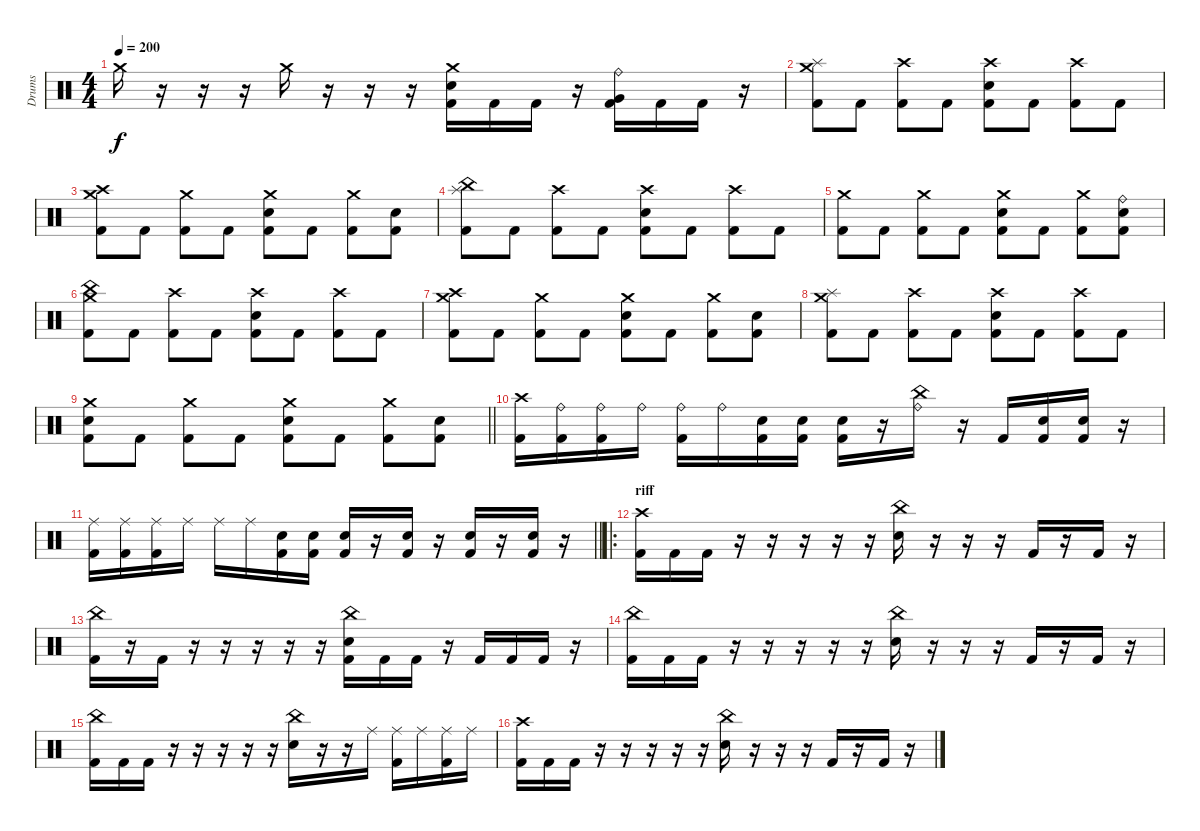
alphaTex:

\track ("Drums" "Drums") {instrument percussion}
\staff {score}
\articulation defaults
\ts (4 4)
\tempo 200
\clef neutral
\ks c "Crash medium (hit)".16{dy f}
r.16 r.16 r.16 "Crash medium (hit)".16 r.16 r.16 r.16 ("Electric Snare (hit)" "Kick (hit) 2" "Crash medium (hit)").16 "Kick (hit) 2".16 "Kick (hit) 2".16 r.16 ("Kick (hit) 2" "Very Low Tom (hit)" "Ride (bell)").16 "Kick (hit) 2".16 "Kick (hit) 2".16 r.16 |
("Kick (hit) 2" "Crash medium (hit)" "Splash (hit)").8 "Kick (hit) 2".8 ("Kick (hit) 2" "Crash high (hit)").8 "Kick (hit) 2".8 ("Electric Snare (hit)" "Kick (hit) 2" "Crash high (hit)").8 "Kick (hit) 2".8 ("Kick (hit) 2" "Crash high (hit)").8 "Kick (hit) 2".8 |
("Kick (hit) 2" "Crash medium (hit)" "Crash high (hit)").8 "Kick (hit) 2".8 ("Kick (hit) 2" "Crash medium (hit)").8 "Kick (hit) 2".8 ("Electric Snare (hit)" "Kick (hit) 2" "Crash medium (hit)").8 "Kick (hit) 2".8 ("Kick (hit) 2" "Crash medium (hit)").8 ("Electric Snare (hit)" "Kick (hit) 2").8 |
("Kick (hit) 2" "Splash (hit)" "China (hit)").8 "Kick (hit) 2".8 ("Kick (hit) 2" "Crash high (hit)").8 "Kick (hit) 2".8 ("Electric Snare (hit)" "Kick (hit) 2" "Crash high (hit)").8 "Kick (hit) 2".8 ("Kick (hit) 2" "Crash high (hit)").8 "Kick (hit) 2".8 |
("Kick (hit) 2" "Crash medium (hit)").8 "Kick (hit) 2".8 ("Kick (hit) 2" "Crash medium (hit)").8 "Kick (hit) 2".8 ("Electric Snare (hit)" "Kick (hit) 2" "Crash medium (hit)").8 "Kick (hit) 2".8 ("Kick (hit) 2" "Crash medium (hit)").8 ("Electric Snare (hit)" "Kick (hit) 2" "Ride (bell)").8 |
("Kick (hit) 2" "Crash medium (hit)" "China (hit)").8 "Kick (hit) 2".8 ("Kick (hit) 2" "Crash high (hit)").8 "Kick (hit) 2".8 ("Electric Snare (hit)" "Kick (hit) 2" "Crash high (hit)").8 "Kick (hit) 2".8 ("Kick (hit) 2" "Crash high (hit)").8 "Kick (hit) 2".8 |
("Kick (hit) 2" "Crash medium (hit)" "Crash high (hit)").8 "Kick (hit) 2".8 ("Kick (hit) 2" "Crash medium (hit)").8 "Kick (hit) 2".8 ("Electric Snare (hit)" "Kick (hit) 2" "Crash medium (hit)").8 "Kick (hit) 2".8 ("Kick (hit) 2" "Crash medium (hit)").8 ("Electric Snare (hit)" "Kick (hit) 2").8 |
("Kick (hit) 2" "Crash medium (hit)" "Splash (hit)").8 "Kick (hit) 2".8 ("Kick (hit) 2" "Crash high (hit)").8 "Kick (hit) 2".8 ("Electric Snare (hit)" "Kick (hit) 2" "Crash high (hit)").8 "Kick (hit) 2".8 ("Kick (hit) 2" "Crash high (hit)").8 "Kick (hit) 2".8 |
\barLineRight lightlight
("Electric Snare (hit)" "Kick (hit) 2" "Crash medium (hit)").8 "Kick (hit) 2".8 ("Kick (hit) 2" "Crash medium (hit)").8 "Kick (hit) 2".8 ("Electric Snare (hit)" "Kick (hit) 2" "Crash medium (hit)").8 "Kick (hit) 2".8 ("Kick (hit) 2" "Crash medium (hit)").8 ("Electric Snare (hit)" "Kick (hit) 2").8 |
\section ("" "")
("Kick (hit) 2" "Crash high (hit)").16 ("Kick (hit) 2" "Ride (bell)").16 ("Kick (hit) 2" "Ride (bell)").16 "Ride (bell)".16 ("Kick (hit) 2" "Ride (bell)").16 "Ride (bell)".16 ("Electric Snare (hit)" "Kick (hit) 2").16 ("Electric Snare (hit)" "Kick (hit) 2").16 ("Electric Snare (hit)" "Kick (hit) 2").16 r.16 ("Ride (bell)" "China (hit)").16 r.16 "Kick (hit) 2".16 ("Electric Snare (hit)" "Kick (hit) 2").16 ("Electric Snare (hit)" "Kick (hit) 2").16 r.16 |
\barLineRight lightlight
("Kick (hit) 2" "Ride (middle)").16 ("Kick (hit) 2" "Ride (middle)").16 ("Kick (hit) 2" "Ride (middle)").16 "Ride (middle)".16 "Ride (middle)".16 "Ride (middle)".16 ("Electric Snare (hit)" "Kick (hit) 2").16 ("Electric Snare (hit)" "Kick (hit) 2").16 ("Electric Snare (hit)" "Kick (hit) 2").16 r.16 ("Electric Snare (hit)" "Kick (hit) 2").16 r.16 ("Electric Snare (hit)" "Kick (hit) 2").16 r.16 ("Electric Snare (hit)" "Kick (hit) 2").16 r.16 |
\ro
\section ("" "riff")
("Kick (hit) 2" "Crash high (hit)").16 "Kick (hit) 2".16 "Kick (hit) 2".16 r.16 r.16 r.16 r.16 r.16 ("Electric Snare (hit)" "China (hit)").16 r.16 r.16 r.16 "Kick (hit) 2".16 r.16 "Kick (hit) 2".16 r.16 |
("Kick (hit) 2" "China (hit)").16 r.16 "Kick (hit) 2".16 r.16 r.16 r.16 r.16 r.16 ("Electric Snare (hit)" "Kick (hit) 2" "China (hit)").16 "Kick (hit) 2".16 "Kick (hit) 2".16 r.16 "Kick (hit) 2".16 "Kick (hit) 2".16 "Kick (hit) 2".16 r.16 |
("Kick (hit) 2" "China (hit)").16 "Kick (hit) 2".16 "Kick (hit) 2".16 r.16 r.16 r.16 r.16 r.16 ("Electric Snare (hit)" "China (hit)").16 r.16 r.16 r.16 "Kick (hit) 2".16 r.16 "Kick (hit) 2".16 r.16 |
("Kick (hit) 2" "China (hit)").16 "Kick (hit) 2".16 "Kick (hit) 2".16 r.16 r.16 r.16 r.16 r.16 ("Electric Snare (hit)" "China (hit)").16 r.16 r.16 "Ride (middle)".16 ("Kick (hit) 2" "Ride (middle)").16 "Ride (middle)".16 ("Kick (hit) 2" "Ride (middle)").16 "Ride (middle)".16 |
("Kick (hit) 2" "Crash high (hit)").16 "Kick (hit) 2".16 "Kick (hit) 2".16 r.16 r.16 r.16 r.16 r.16 ("Electric Snare (hit)" "China (hit)").16 r.16 r.16 r.16 "Kick (hit) 2".16 r.16 "Kick (hit) 2".16 r.16
